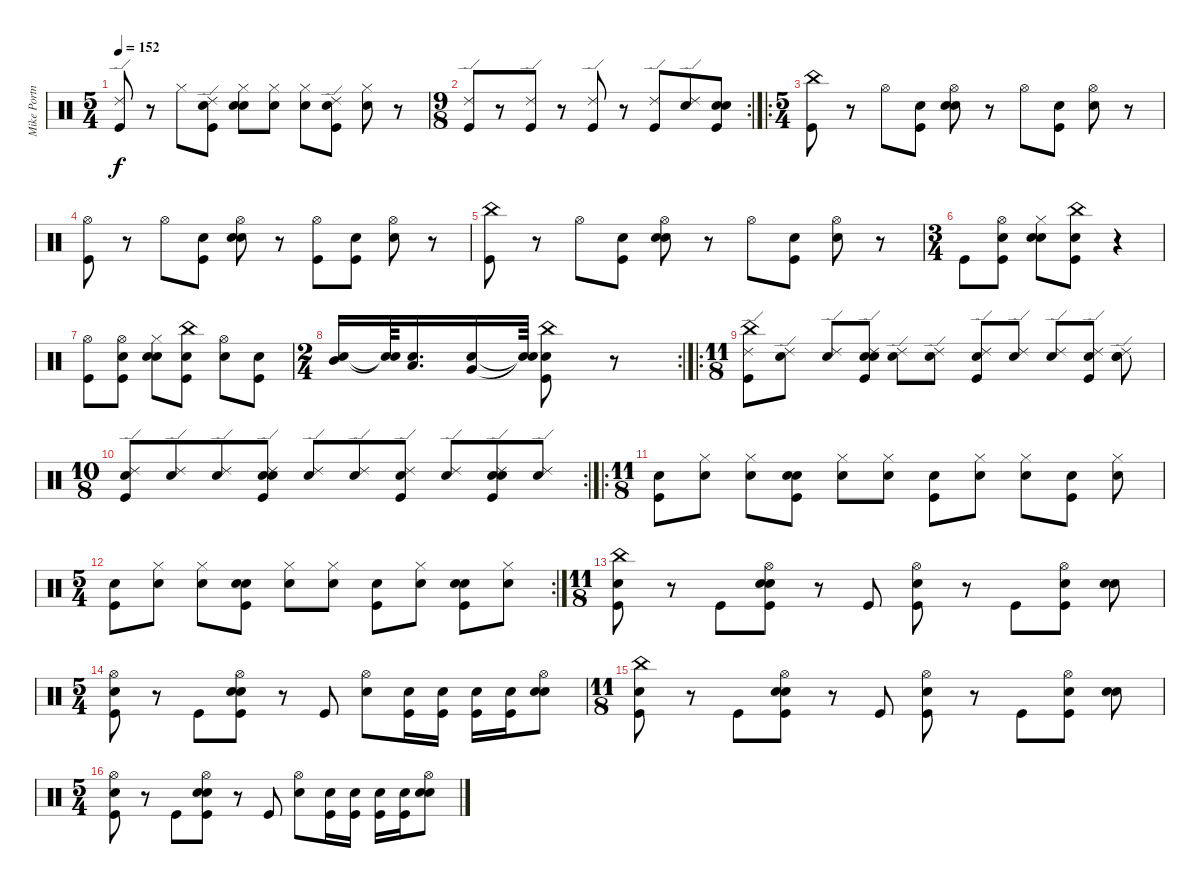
\track ("Mike Portnoy" "Mike Portn") {instrument percussion}
\staff {score}
\articulation defaults
\ts (5 4)
\tempo 152
\clef neutral
\ks c
("Kick (hit)" "Ride (edge) 2").8{dy f} r.8 "Hi-Hat (closed)".8 ("Snare (hit)" "Kick (hit)" "Ride (edge) 2").8 ("Snare (hit)" "Snare (hit) 2" "Hi-Hat (closed)").8 ("Snare (hit)" "Hi-Hat (closed)").8 ("Snare (hit)" "Hi-Hat (closed)").8 ("Snare (hit)" "Kick (hit)" "Ride (edge) 2").8 ("Snare (hit)" "Hi-Hat (closed)").8 r.8 |
\rc 2
\ts (9 8)
("Kick (hit)" "Ride (edge) 2").8 r.8 ("Kick (hit)" "Ride (edge) 2").8 r.8 ("Kick (hit)" "Ride (edge) 2").8 r.8 ("Kick (hit)" "Ride (edge) 2").8 ("Snare (hit)" "Ride (edge) 2").8 ("Snare (hit)" "Kick (hit)" "Snare (hit) 2").8 |
\ro
\ts (5 4)
("Kick (hit)" "China (hit)").8 r.8 "Hi-Hat (open)".8 ("Snare (hit)" "Kick (hit)").8 ("Snare (hit)" "Snare (hit) 2" "Hi-Hat (open)").8 r.8 "Hi-Hat (open)".8 ("Snare (hit)" "Kick (hit)").8 ("Snare (hit)" "Hi-Hat (open)").8 r.8 |
("Kick (hit)" "Hi-Hat (open)").8 r.8 "Hi-Hat (open)".8 ("Snare (hit)" "Kick (hit)").8 ("Snare (hit)" "Snare (hit) 2" "Hi-Hat (open)").8 r.8 ("Kick (hit)" "Hi-Hat (open)").8 ("Snare (hit)" "Kick (hit)").8 ("Snare (hit)" "Hi-Hat (open)").8 r.8 |
("Kick (hit)" "China (hit)").8 r.8 "Hi-Hat (open)".8 ("Snare (hit)" "Kick (hit)").8 ("Snare (hit)" "Snare (hit) 2" "Hi-Hat (open)").8 r.8 "Hi-Hat (open)".8 ("Snare (hit)" "Kick (hit)").8 ("Snare (hit)" "Hi-Hat (open)").8 r.8 |
\ts (3 4)
"Kick (hit)".8 ("Snare (hit)" "Kick (hit)" "Hi-Hat (open)").8 ("Snare (hit)" "Snare (hit) 2" "Hi-Hat (closed)").8 ("Snare (hit)" "Kick (hit)" "China (hit)").8 r.4 |
("Kick (hit)" "Hi-Hat (open)").8 ("Snare (hit)" "Kick (hit)" "Hi-Hat (open)").8 ("Snare (hit)" "Snare (hit) 2" "Hi-Hat (closed)").8 ("Snare (hit)" "Kick (hit)" "China (hit)").8 ("Snare (hit)" "Hi-Hat (open)").8 ("Snare (hit)" "Kick (hit)").8 |
\rc 2
\ts (2 4)
("Snare (hit)" "Mid Tom (hit)").16 ("Snare (hit)"{t} "Snare (hit)"{t}).64 ("Snare (hit)" "Low Tom (hit)").16{d} ("Snare (hit)" "Very Low Tom (hit)").16 ("Snare (hit)"{t} "Snare (hit)"{t}).64 ("Snare (hit)" "Kick (hit)" "China (hit)").8 r.8 |
\ro
\ts (11 8)
("Kick (hit)" "China (hit)" "Ride (edge) 2").8 ("Snare (hit)" "Ride (edge) 2").8 ("Snare (hit)" "Ride (edge) 2").8 ("Snare (hit)" "Kick (hit)" "Snare (hit) 2" "Ride (edge) 2").8 ("Snare (hit)" "Ride (edge) 2").8 ("Snare (hit)" "Ride (edge) 2").8 ("Snare (hit)" "Kick (hit)" "Ride (edge) 2").8 ("Snare (hit)" "Ride (edge) 2").8 ("Snare (hit)" "Ride (edge) 2").8 ("Snare (hit)" "Kick (hit)" "Ride (edge) 2").8 ("Snare (hit)" "Snare (hit) 2" "Ride (edge) 2").8 |
\rc 2
\ts (10 8)
("Snare (hit)" "Kick (hit)" "Ride (edge) 2").8 ("Snare (hit)" "Ride (edge) 2").8 ("Snare (hit)" "Ride (edge) 2").8 ("Snare (hit)" "Kick (hit)" "Snare (hit) 2" "Ride (edge) 2").8 ("Snare (hit)" "Ride (edge) 2").8 ("Snare (hit)" "Ride (edge) 2").8 ("Snare (hit)" "Kick (hit)" "Ride (edge) 2").8 ("Snare (hit)" "Ride (edge) 2").8 ("Snare (hit)" "Kick (hit)" "Snare (hit) 2" "Ride (edge) 2").8 ("Snare (hit)" "Ride (edge) 2").8 |
\ro
\ts (11 8)
("Snare (hit)" "Kick (hit)").8 ("Snare (hit)" "Hi-Hat (closed)").8 ("Snare (hit)" "Hi-Hat (closed)").8 ("Snare (hit)" "Kick (hit)" "Snare (hit) 2").8 ("Snare (hit)" "Hi-Hat (closed)").8 ("Snare (hit)" "Hi-Hat (closed)").8 ("Snare (hit)" "Kick (hit)").8 ("Snare (hit)" "Hi-Hat (closed)").8 ("Snare (hit)" "Hi-Hat (closed)").8 ("Snare (hit)" "Kick (hit)").8 ("Snare (hit)" "Hi-Hat (closed)").8 |
\rc 2
\ts (5 4)
("Snare (hit)" "Kick (hit)").8 ("Snare (hit)" "Hi-Hat (closed)").8 ("Snare (hit)" "Hi-Hat (closed)").8 ("Snare (hit)" "Kick (hit)" "Snare (hit) 2").8 ("Snare (hit)" "Hi-Hat (closed)").8 ("Snare (hit)" "Hi-Hat (closed)").8 ("Snare (hit)" "Kick (hit)").8 ("Snare (hit)" "Hi-Hat (closed)").8 ("Snare (hit)" "Kick (hit)" "Snare (hit) 2").8 ("Snare (hit)" "Hi-Hat (closed)").8 |
\ts (11 8)
("Snare (hit)" "Kick (hit)" "China (hit)").8 r.8 "Kick (hit)".8 ("Snare (hit)" "Kick (hit)" "Snare (hit) 2" "Hi-Hat (open)").8 r.8 "Kick (hit)".8 ("Snare (hit)" "Kick (hit)" "Hi-Hat (open)").8 r.8 "Kick (hit)".8 ("Snare (hit)" "Kick (hit)" "Hi-Hat (open)").8 ("Snare (hit)" "Snare (hit) 2").8 |
\ts (5 4)
("Snare (hit)" "Kick (hit)" "Hi-Hat (open)").8 r.8 "Kick (hit)".8 ("Snare (hit)" "Kick (hit)" "Snare (hit) 2" "Hi-Hat (open)").8 r.8 "Kick (hit)".8 ("Snare (hit)" "Hi-Hat (open)").8 ("Snare (hit)" "Kick (hit)").16 ("Snare (hit)" "Kick (hit)").16 ("Snare (hit)" "Kick (hit)").16 ("Snare (hit)" "Kick (hit)").16 ("Snare (hit)" "Snare (hit) 2" "Hi-Hat (open)").8 |
\ts (11 8)
("Snare (hit)" "Kick (hit)" "China (hit)").8 r.8 "Kick (hit)".8 ("Snare (hit)" "Kick (hit)" "Snare (hit) 2" "Hi-Hat (open)").8 r.8 "Kick (hit)".8 ("Snare (hit)" "Kick (hit)" "Hi-Hat (open)").8 r.8 "Kick (hit)".8 ("Snare (hit)" "Kick (hit)" "Hi-Hat (open)").8 ("Snare (hit)" "Snare (hit) 2").8 |
\ts (5 4)
("Snare (hit)" "Kick (hit)" "Hi-Hat (open)").8 r.8 "Kick (hit)".8 ("Snare (hit)" "Kick (hit)" "Snare (hit) 2" "Hi-Hat (open)").8 r.8 "Kick (hit)".8 ("Snare (hit)" "Hi-Hat (open)").8 ("Snare (hit)" "Kick (hit)").16 ("Snare (hit)" "Kick (hit)").16 ("Snare (hit)" "Kick (hit)").16 ("Snare (hit)" "Kick (hit)").16 ("Snare (hit)" "Snare (hit) 2" "Hi-Hat (open)").8
